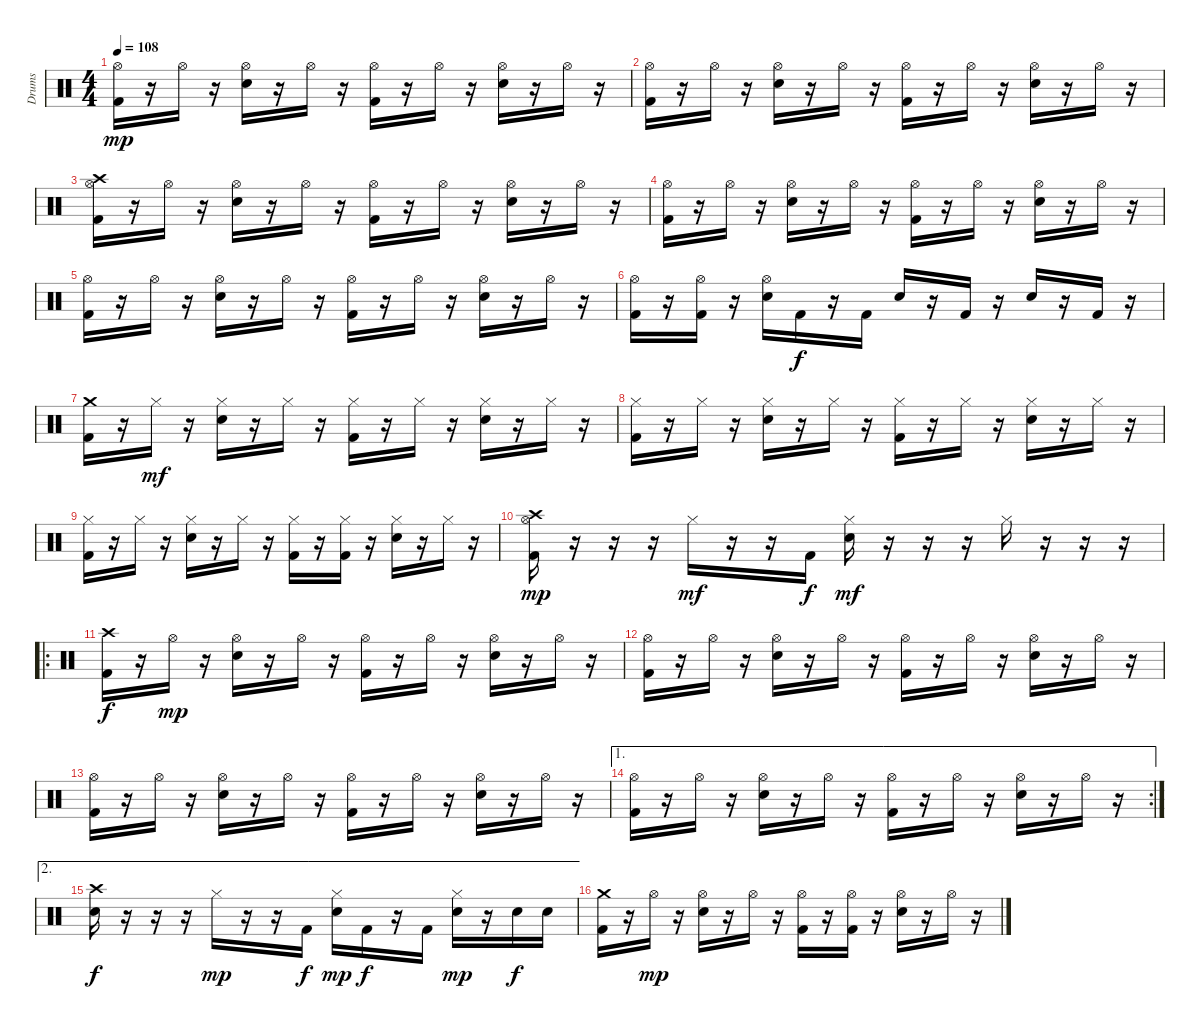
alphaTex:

\track ("Drums" "Drums") {instrument percussion}
\staff {score}
\articulation defaults
\ts (4 4)
\tempo 108
\clef neutral
\ks c
("Hi-Hat (open)" "Kick (hit) 2").16{dy mp} r.16 "Hi-Hat (open)".16 r.16 ("Hi-Hat (open)" "Snare (hit) 2").16 r.16 "Hi-Hat (open)".16 r.16 ("Hi-Hat (open)" "Kick (hit) 2").16 r.16 "Hi-Hat (open)".16 r.16 ("Hi-Hat (open)" "Snare (hit) 2").16 r.16 "Hi-Hat (open)".16 r.16 |
("Hi-Hat (open)" "Kick (hit) 2").16 r.16 "Hi-Hat (open)".16 r.16 ("Hi-Hat (open)" "Snare (hit) 2").16 r.16 "Hi-Hat (open)".16 r.16 ("Hi-Hat (open)" "Kick (hit) 2").16 r.16 "Hi-Hat (open)".16 r.16 ("Hi-Hat (open)" "Snare (hit) 2").16 r.16 "Hi-Hat (open)".16 r.16 |
("Hi-Hat (open)" "Crash high (hit)" "Kick (hit) 2").16 r.16 "Hi-Hat (open)".16 r.16 ("Hi-Hat (open)" "Snare (hit) 2").16 r.16 "Hi-Hat (open)".16 r.16 ("Hi-Hat (open)" "Kick (hit) 2").16 r.16 "Hi-Hat (open)".16 r.16 ("Hi-Hat (open)" "Snare (hit) 2").16 r.16 "Hi-Hat (open)".16 r.16 |
("Hi-Hat (open)" "Kick (hit) 2").16 r.16 "Hi-Hat (open)".16 r.16 ("Hi-Hat (open)" "Snare (hit) 2").16 r.16 "Hi-Hat (open)".16 r.16 ("Hi-Hat (open)" "Kick (hit) 2").16 r.16 "Hi-Hat (open)".16 r.16 ("Hi-Hat (open)" "Snare (hit) 2").16 r.16 "Hi-Hat (open)".16 r.16 |
("Hi-Hat (open)" "Kick (hit) 2").16 r.16 "Hi-Hat (open)".16 r.16 ("Hi-Hat (open)" "Snare (hit) 2").16 r.16 "Hi-Hat (open)".16 r.16 ("Hi-Hat (open)" "Kick (hit) 2").16 r.16 "Hi-Hat (open)".16 r.16 ("Hi-Hat (open)" "Snare (hit) 2").16 r.16 "Hi-Hat (open)".16 r.16 |
("Hi-Hat (open)" "Kick (hit) 2").16 r.16 ("Hi-Hat (open)" "Kick (hit) 2").16 r.16 ("Hi-Hat (open)" "Snare (hit) 2").16 "Kick (hit) 2".16{dy f} r.16 "Kick (hit) 2".16 "Snare (hit) 2".16 r.16 "Kick (hit) 2".16 r.16 "Snare (hit) 2".16 r.16 "Kick (hit) 2".16 r.16 |
("Crash medium (hit)" "Kick (hit) 2").16 r.16 "Hi-Hat (closed)".16{dy mf} r.16 ("Hi-Hat (closed)" "Snare (hit) 2").16 r.16 "Hi-Hat (closed)".16 r.16 ("Hi-Hat (closed)" "Kick (hit) 2").16 r.16 "Hi-Hat (closed)".16 r.16 ("Hi-Hat (closed)" "Snare (hit) 2").16 r.16 "Hi-Hat (closed)".16 r.16 |
("Hi-Hat (closed)" "Kick (hit) 2").16 r.16 "Hi-Hat (closed)".16 r.16 ("Hi-Hat (closed)" "Snare (hit) 2").16 r.16 "Hi-Hat (closed)".16 r.16 ("Hi-Hat (closed)" "Kick (hit) 2").16 r.16 "Hi-Hat (closed)".16 r.16 ("Hi-Hat (closed)" "Snare (hit) 2").16 r.16 "Hi-Hat (closed)".16 r.16 |
("Hi-Hat (closed)" "Kick (hit) 2").16 r.16 "Hi-Hat (closed)".16 r.16 ("Hi-Hat (closed)" "Snare (hit) 2").16 r.16 "Hi-Hat (closed)".16 r.16 ("Hi-Hat (closed)" "Kick (hit) 2").16 r.16 ("Hi-Hat (closed)" "Kick (hit) 2").16 r.16 ("Hi-Hat (closed)" "Snare (hit) 2").16 r.16 "Hi-Hat (closed)".16 r.16 |
("Hi-Hat (open)" "Crash high (hit)" "Kick (hit) 2").16{dy mp} r.16 r.16 r.16 "Hi-Hat (closed)".16{dy mf} r.16 r.16 "Kick (hit) 2".16{dy f} ("Hi-Hat (closed)" "Snare (hit) 2").16{dy mf} r.16 r.16 r.16 "Hi-Hat (closed)".16 r.16 r.16 r.16 |
\ro
("Crash high (hit)" "Kick (hit) 2").16{dy f} r.16 "Hi-Hat (open)".16{dy mp} r.16 ("Hi-Hat (open)" "Snare (hit) 2").16 r.16 "Hi-Hat (open)".16 r.16 ("Hi-Hat (open)" "Kick (hit) 2").16 r.16 "Hi-Hat (open)".16 r.16 ("Hi-Hat (open)" "Snare (hit) 2").16 r.16 "Hi-Hat (open)".16 r.16 |
("Hi-Hat (open)" "Kick (hit) 2").16 r.16 "Hi-Hat (open)".16 r.16 ("Hi-Hat (open)" "Snare (hit) 2").16 r.16 "Hi-Hat (open)".16 r.16 ("Hi-Hat (open)" "Kick (hit) 2").16 r.16 "Hi-Hat (open)".16 r.16 ("Hi-Hat (open)" "Snare (hit) 2").16 r.16 "Hi-Hat (open)".16 r.16 |
("Hi-Hat (open)" "Kick (hit) 2").16 r.16 "Hi-Hat (open)".16 r.16 ("Hi-Hat (open)" "Snare (hit) 2").16 r.16 "Hi-Hat (open)".16 r.16 ("Hi-Hat (open)" "Kick (hit) 2").16 r.16 "Hi-Hat (open)".16 r.16 ("Hi-Hat (open)" "Snare (hit) 2").16 r.16 "Hi-Hat (open)".16 r.16 |
\ae 1
\rc 2
("Hi-Hat (open)" "Kick (hit) 2").16 r.16 "Hi-Hat (open)".16 r.16 ("Hi-Hat (open)" "Snare (hit) 2").16 r.16 "Hi-Hat (open)".16 r.16 ("Hi-Hat (open)" "Kick (hit) 2").16 r.16 "Hi-Hat (open)".16 r.16 ("Hi-Hat (open)" "Snare (hit) 2").16 r.16 "Hi-Hat (open)".16 r.16 |
\ae 2
("Crash high (hit)" "Snare (hit) 2").16{dy f} r.16 r.16 r.16 "Hi-Hat (closed)".16{dy mp} r.16 r.16 "Kick (hit) 2".16{dy f} ("Hi-Hat (closed)" "Snare (hit) 2").16{dy mp} "Kick (hit) 2".16{dy f} r.16 "Kick (hit) 2".16 ("Hi-Hat (closed)" "Snare (hit) 2").16{dy mp} r.16 "Snare (hit) 2".16{dy f} "Snare (hit) 2".16 |
("Crash medium (hit)" "Kick (hit) 2").16 r.16 "Hi-Hat (open)".16{dy mp} r.16 ("Hi-Hat (open)" "Snare (hit) 2").16 r.16 "Hi-Hat (open)".16 r.16 ("Hi-Hat (open)" "Kick (hit) 2").16 r.16 ("Hi-Hat (open)" "Kick (hit) 2").16 r.16 ("Hi-Hat (open)" "Snare (hit) 2").16 r.16 "Hi-Hat (open)".16 r.16
